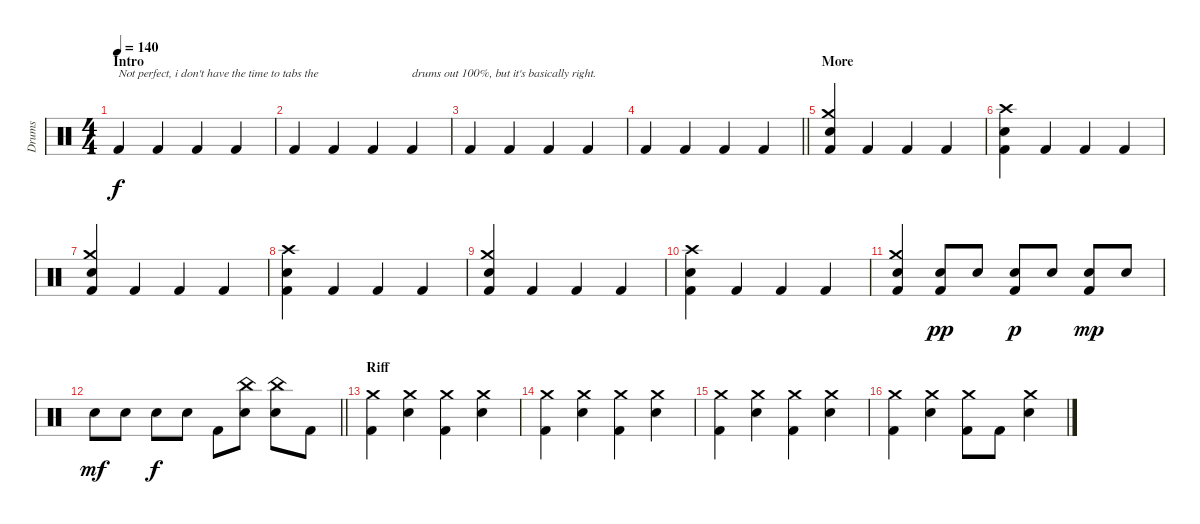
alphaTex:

\track ("Drums" "Drums") {instrument percussion}
\staff {score}
\articulation defaults
\ts (4 4)
\section ("" "Intro")
\tempo 140
\clef neutral
\ks c "Kick (hit) 2".4{txt "Not perfect, i don't have the time to tabs the" dy f} "Kick (hit) 2".4 "Kick (hit) 2".4 "Kick (hit) 2".4
|
"Kick (hit) 2".4 "Kick (hit) 2".4 "Kick (hit) 2".4 "Kick (hit) 2".4{txt "drums out 100%, but it's basically right."} |
"Kick (hit) 2".4 "Kick (hit) 2".4 "Kick (hit) 2".4 "Kick (hit) 2".4 |
\barLineRight lightlight "Kick (hit) 2".4 "Kick (hit) 2".4 "Kick (hit) 2".4 "Kick (hit) 2".4
|
\section ("" "More")
("Crash medium (hit)" "Snare (hit) 2" "Kick (hit) 2").4 "Kick (hit) 2".4 "Kick (hit) 2".4 "Kick (hit) 2".4 |
("Crash high (hit)" "Snare (hit) 2" "Kick (hit) 2").4 "Kick (hit) 2".4 "Kick (hit) 2".4 "Kick (hit) 2".4 |
("Crash medium (hit)" "Snare (hit) 2" "Kick (hit) 2").4 "Kick (hit) 2".4 "Kick (hit) 2".4 "Kick (hit) 2".4 |
("Crash high (hit)" "Snare (hit) 2" "Kick (hit) 2").4 "Kick (hit) 2".4 "Kick (hit) 2".4 "Kick (hit) 2".4 |
("Crash medium (hit)" "Snare (hit) 2" "Kick (hit) 2").4 "Kick (hit) 2".4 "Kick (hit) 2".4 "Kick (hit) 2".4 |
("Crash high (hit)" "Snare (hit) 2" "Kick (hit) 2").4 "Kick (hit) 2".4 "Kick (hit) 2".4 "Kick (hit) 2".4 |
("Crash medium (hit)" "Snare (hit) 2" "Kick (hit) 2").4 ("Snare (hit) 2" "Kick (hit) 2").8{dy pp} "Snare (hit) 2".8 ("Snare (hit) 2" "Kick (hit) 2").8{dy p} "Snare (hit) 2".8 ("Snare (hit) 2" "Kick (hit) 2").8{dy mp} "Snare (hit) 2".8 |
\barLineRight lightlight "Snare (hit) 2".8{dy mf} "Snare (hit) 2".8 "Snare (hit) 2".8{dy f} "Snare (hit) 2".8 "Kick (hit) 2".8
("China (hit)" "Snare (hit) 2").8 ("China (hit)" "Snare (hit) 2").8 "Kick (hit) 2".8 |
\section ("" "Riff")
("Crash medium (hit)" "Kick (hit) 2").4 ("Crash medium (hit)" "Snare (hit) 2").4 ("Crash medium (hit)" "Kick (hit) 2").4 ("Crash medium (hit)" "Snare (hit) 2").4 |
("Crash medium (hit)" "Kick (hit) 2").4 ("Crash medium (hit)" "Snare (hit) 2").4 ("Crash medium (hit)" "Kick (hit) 2").4 ("Crash medium (hit)" "Snare (hit) 2").4 |
("Crash medium (hit)" "Kick (hit) 2").4 ("Crash medium (hit)" "Snare (hit) 2").4 ("Crash medium (hit)" "Kick (hit) 2").4 ("Crash medium (hit)" "Snare (hit) 2").4 |
("Crash medium (hit)" "Kick (hit) 2").4 ("Crash medium (hit)" "Snare (hit) 2").4 ("Crash medium (hit)" "Kick (hit) 2").8 "Kick (hit) 2".8 ("Crash medium (hit)" "Snare (hit) 2").4
